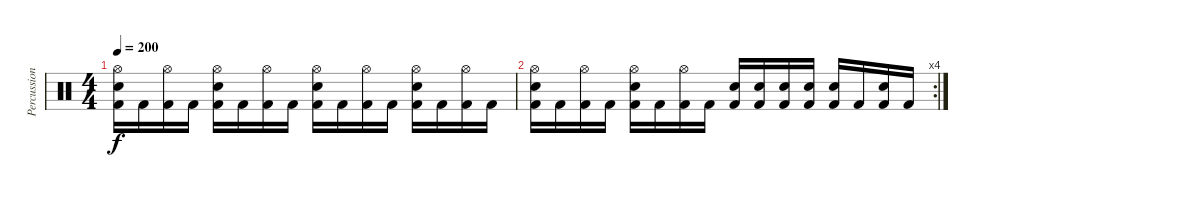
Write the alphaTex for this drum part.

\track ("Percussion" "Percussion") {instrument percussion}
\staff {score}
\articulation defaults
\ts (4 4)
\tempo 200
\clef neutral
\ks c
("Hi-Hat (open)" "Electric Snare (hit)" "Kick (hit) 2").16{dy f} "Kick (hit) 2".16 ("Hi-Hat (open)" "Kick (hit) 2").16 "Kick (hit) 2".16 ("Hi-Hat (open)" "Electric Snare (hit)" "Kick (hit) 2").16 "Kick (hit) 2".16 ("Hi-Hat (open)" "Kick (hit) 2").16 "Kick (hit) 2".16 ("Hi-Hat (open)" "Electric Snare (hit)" "Kick (hit) 2").16 "Kick (hit) 2".16 ("Hi-Hat (open)" "Kick (hit) 2").16 "Kick (hit) 2".16 ("Hi-Hat (open)" "Electric Snare (hit)" "Kick (hit) 2").16 "Kick (hit) 2".16 ("Hi-Hat (open)" "Kick (hit) 2").16 "Kick (hit) 2".16 |
\rc 4
("Hi-Hat (open)" "Electric Snare (hit)" "Kick (hit) 2").16 "Kick (hit) 2".16 ("Hi-Hat (open)" "Kick (hit) 2").16 "Kick (hit) 2".16 ("Hi-Hat (open)" "Electric Snare (hit)" "Kick (hit) 2").16 "Kick (hit) 2".16 ("Hi-Hat (open)" "Kick (hit) 2").16 "Kick (hit) 2".16 ("Electric Snare (hit)" "Kick (hit) 2").16 ("Electric Snare (hit)" "Kick (hit) 2").16 ("Electric Snare (hit)" "Kick (hit) 2").16 ("Electric Snare (hit)" "Kick (hit) 2").16 ("Electric Snare (hit)" "Kick (hit) 2").16 "Kick (hit) 2".16 ("Electric Snare (hit)" "Kick (hit) 2").16 "Kick (hit) 2".16
